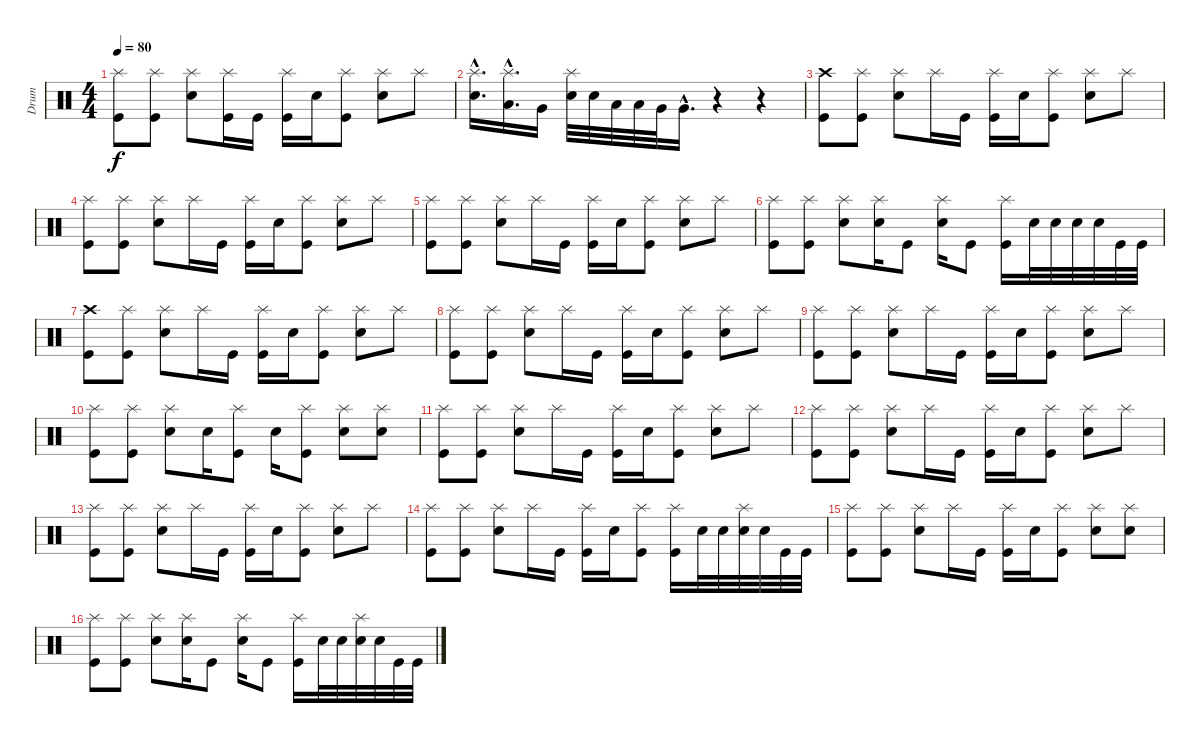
\track ("Drum" "Drum") {instrument percussion}
\staff {score}
\articulation defaults
\ts (4 4)
\tempo 80
\clef neutral
\ks c
("Splash (hit)" "Kick (hit)").8{dy f} ("Splash (hit)" "Kick (hit)").8 ("Splash (hit)" "Electric Snare (hit)").8 ("Splash (hit)" "Kick (hit)").16 "Kick (hit)".16 ("Splash (hit)" "Kick (hit)").16 "Electric Snare (hit)".16 ("Splash (hit)" "Kick (hit)").8 ("Splash (hit)" "Electric Snare (hit)").8 "Splash (hit)".8 |
("Splash (hit)"{hac} "Electric Snare (hit)"{hac}).16{d} ("Splash (hit)"{hac} "Low Tom (hit)"{hac}).16{d} "Very Low Tom (hit)".16 ("Splash (hit)" "Electric Snare (hit)").32 "Electric Snare (hit)".32 "Low Tom (hit)".32 "Low Tom (hit)".32 "Very Low Tom (hit)".32 "Very Low Tom (hit)"{hac}.16{d} r.4 r.4 |
("Crash high (hit)" "Kick (hit)").8 ("Splash (hit)" "Kick (hit)").8 ("Splash (hit)" "Electric Snare (hit)").8 "Splash (hit)".16 "Kick (hit)".16 ("Splash (hit)" "Kick (hit)").16 "Electric Snare (hit)".16 ("Splash (hit)" "Kick (hit)").8 ("Splash (hit)" "Electric Snare (hit)").8 "Splash (hit)".8 |
("Splash (hit)" "Kick (hit)").8 ("Splash (hit)" "Kick (hit)").8 ("Splash (hit)" "Electric Snare (hit)").8 "Splash (hit)".16 "Kick (hit)".16 ("Splash (hit)" "Kick (hit)").16 "Electric Snare (hit)".16 ("Splash (hit)" "Kick (hit)").8 ("Splash (hit)" "Electric Snare (hit)").8 "Splash (hit)".8 |
("Splash (hit)" "Kick (hit)").8 ("Splash (hit)" "Kick (hit)").8 ("Splash (hit)" "Electric Snare (hit)").8 "Splash (hit)".16 "Kick (hit)".16 ("Splash (hit)" "Kick (hit)").16 "Electric Snare (hit)".16 ("Splash (hit)" "Kick (hit)").8 ("Splash (hit)" "Electric Snare (hit)").8 "Splash (hit)".8 |
("Splash (hit)" "Kick (hit)").8 ("Splash (hit)" "Kick (hit)").8 ("Splash (hit)" "Electric Snare (hit)").8 ("Splash (hit)" "Electric Snare (hit)").16 "Kick (hit)".8 ("Splash (hit)" "Electric Snare (hit)").16 "Kick (hit)".8 ("Splash (hit)" "Kick (hit)").16 "Electric Snare (hit)".32 "Electric Snare (hit)".32 "Electric Snare (hit)".32 "Electric Snare (hit)".32 "Kick (hit)".32 "Kick (hit)".32 |
("Crash high (hit)" "Kick (hit)").8 ("Splash (hit)" "Kick (hit)").8 ("Splash (hit)" "Electric Snare (hit)").8 "Splash (hit)".16 "Kick (hit)".16 ("Splash (hit)" "Kick (hit)").16 "Electric Snare (hit)".16 ("Splash (hit)" "Kick (hit)").8 ("Splash (hit)" "Electric Snare (hit)").8 "Splash (hit)".8 |
("Splash (hit)" "Kick (hit)").8 ("Splash (hit)" "Kick (hit)").8 ("Splash (hit)" "Electric Snare (hit)").8 "Splash (hit)".16 "Kick (hit)".16 ("Splash (hit)" "Kick (hit)").16 "Electric Snare (hit)".16 ("Splash (hit)" "Kick (hit)").8 ("Splash (hit)" "Electric Snare (hit)").8 "Splash (hit)".8 |
("Splash (hit)" "Kick (hit)").8 ("Splash (hit)" "Kick (hit)").8 ("Splash (hit)" "Electric Snare (hit)").8 "Splash (hit)".16 "Kick (hit)".16 ("Splash (hit)" "Kick (hit)").16 "Electric Snare (hit)".16 ("Splash (hit)" "Kick (hit)").8 ("Splash (hit)" "Electric Snare (hit)").8 "Splash (hit)".8 |
("Splash (hit)" "Kick (hit)").8 ("Splash (hit)" "Kick (hit)").8 ("Splash (hit)" "Electric Snare (hit)").8 "Electric Snare (hit)".16 ("Splash (hit)" "Kick (hit)").8 "Electric Snare (hit)".16 ("Splash (hit)" "Kick (hit)").8 ("Splash (hit)" "Electric Snare (hit)").8 ("Splash (hit)" "Electric Snare (hit)").8 |
("Splash (hit)" "Kick (hit)").8 ("Splash (hit)" "Kick (hit)").8 ("Splash (hit)" "Electric Snare (hit)").8 "Splash (hit)".16 "Kick (hit)".16 ("Splash (hit)" "Kick (hit)").16 "Electric Snare (hit)".16 ("Splash (hit)" "Kick (hit)").8 ("Splash (hit)" "Electric Snare (hit)").8 "Splash (hit)".8 |
("Splash (hit)" "Kick (hit)").8 ("Splash (hit)" "Kick (hit)").8 ("Splash (hit)" "Electric Snare (hit)").8 "Splash (hit)".16 "Kick (hit)".16 ("Splash (hit)" "Kick (hit)").16 "Electric Snare (hit)".16 ("Splash (hit)" "Kick (hit)").8 ("Splash (hit)" "Electric Snare (hit)").8 "Splash (hit)".8 |
("Splash (hit)" "Kick (hit)").8 ("Splash (hit)" "Kick (hit)").8 ("Splash (hit)" "Electric Snare (hit)").8 "Splash (hit)".16 "Kick (hit)".16 ("Splash (hit)" "Kick (hit)").16 "Electric Snare (hit)".16 ("Splash (hit)" "Kick (hit)").8 ("Splash (hit)" "Electric Snare (hit)").8 "Splash (hit)".8 |
("Splash (hit)" "Kick (hit)").8 ("Splash (hit)" "Kick (hit)").8 ("Splash (hit)" "Electric Snare (hit)").8 "Splash (hit)".16 "Kick (hit)".16 ("Splash (hit)" "Kick (hit)").16 "Electric Snare (hit)".16 ("Splash (hit)" "Kick (hit)").8 ("Splash (hit)" "Kick (hit)").16 "Electric Snare (hit)".32 "Electric Snare (hit)".32 ("Splash (hit)" "Electric Snare (hit)").32 "Electric Snare (hit)".32 "Kick (hit)".32 "Kick (hit)".32 |
("Splash (hit)" "Kick (hit)").8 ("Splash (hit)" "Kick (hit)").8 ("Splash (hit)" "Electric Snare (hit)").8 "Splash (hit)".16 "Kick (hit)".16 ("Splash (hit)" "Kick (hit)").16 "Electric Snare (hit)".16 ("Splash (hit)" "Kick (hit)").8 ("Splash (hit)" "Electric Snare (hit)").8 ("Splash (hit)" "Electric Snare (hit)").8 |
("Splash (hit)" "Kick (hit)").8 ("Splash (hit)" "Kick (hit)").8 ("Splash (hit)" "Electric Snare (hit)").8 ("Splash (hit)" "Electric Snare (hit)").16 "Kick (hit)".8 ("Splash (hit)" "Electric Snare (hit)").16 "Kick (hit)".8 ("Splash (hit)" "Kick (hit)").16 "Electric Snare (hit)".32 "Electric Snare (hit)".32 ("Splash (hit)" "Electric Snare (hit)").32 "Electric Snare (hit)".32 "Kick (hit)".32 "Kick (hit)".32
